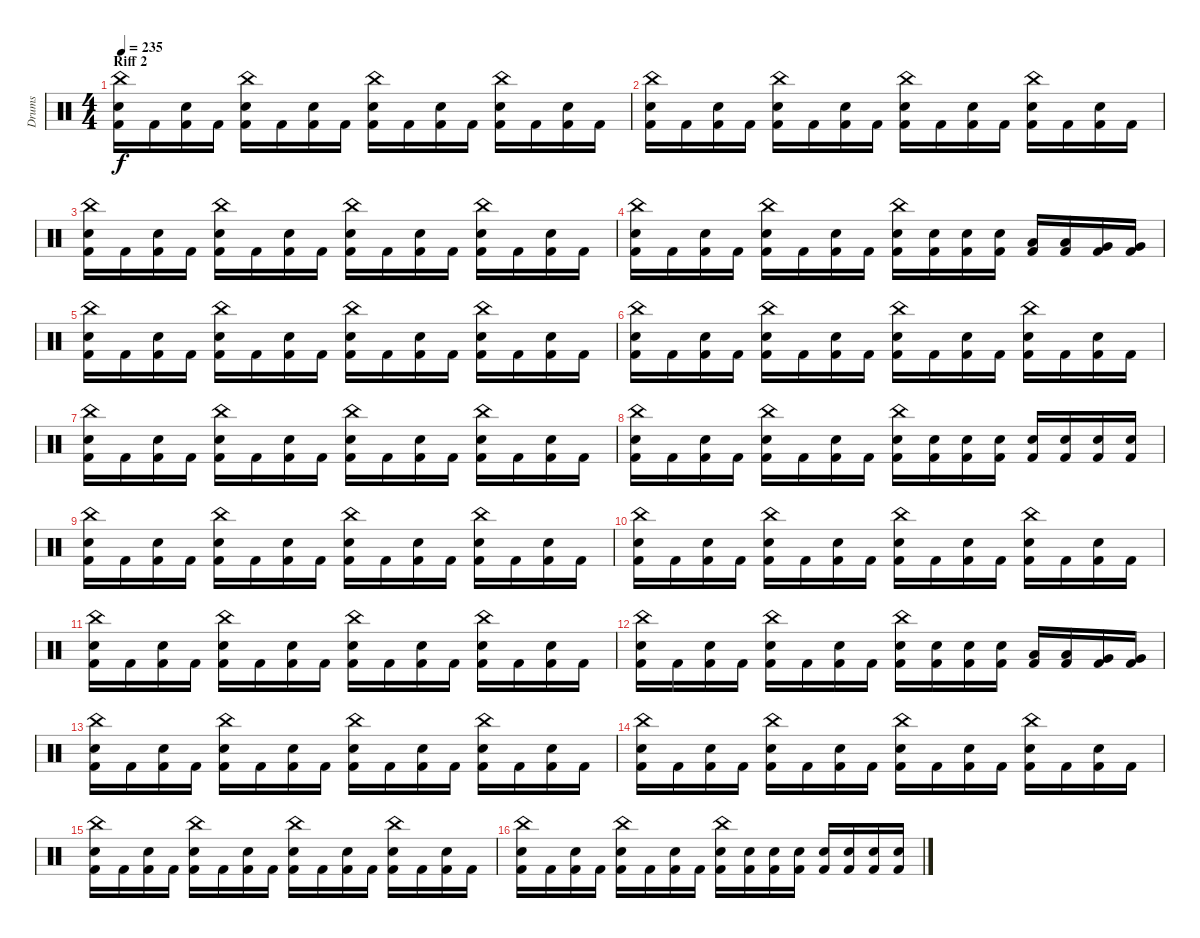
\track ("Drums" "Drums") {instrument percussion}
\staff {score}
\articulation defaults
\ts (4 4)
\section ("" "Riff 2")
\tempo 235
\clef neutral
\ks c
("Kick (hit) 2" "Snare (hit) 2" "China (hit)").16{dy f} "Kick (hit) 2".16 ("Kick (hit) 2" "Snare (hit) 2").16 "Kick (hit) 2".16 ("Kick (hit) 2" "Snare (hit) 2" "China (hit)").16 "Kick (hit) 2".16 ("Kick (hit) 2" "Snare (hit) 2").16 "Kick (hit) 2".16 ("Kick (hit) 2" "Snare (hit) 2" "China (hit)").16 "Kick (hit) 2".16 ("Kick (hit) 2" "Snare (hit) 2").16 "Kick (hit) 2".16 ("Kick (hit) 2" "Snare (hit) 2" "China (hit)").16 "Kick (hit) 2".16 ("Kick (hit) 2" "Snare (hit) 2").16 "Kick (hit) 2".16 |
("Kick (hit) 2" "Snare (hit) 2" "China (hit)").16 "Kick (hit) 2".16 ("Kick (hit) 2" "Snare (hit) 2").16 "Kick (hit) 2".16 ("Kick (hit) 2" "Snare (hit) 2" "China (hit)").16 "Kick (hit) 2".16 ("Kick (hit) 2" "Snare (hit) 2").16 "Kick (hit) 2".16 ("Kick (hit) 2" "Snare (hit) 2" "China (hit)").16 "Kick (hit) 2".16 ("Kick (hit) 2" "Snare (hit) 2").16 "Kick (hit) 2".16 ("Kick (hit) 2" "Snare (hit) 2" "China (hit)").16 "Kick (hit) 2".16 ("Kick (hit) 2" "Snare (hit) 2").16 "Kick (hit) 2".16 |
("Kick (hit) 2" "Snare (hit) 2" "China (hit)").16 "Kick (hit) 2".16 ("Kick (hit) 2" "Snare (hit) 2").16 "Kick (hit) 2".16 ("Kick (hit) 2" "Snare (hit) 2" "China (hit)").16 "Kick (hit) 2".16 ("Kick (hit) 2" "Snare (hit) 2").16 "Kick (hit) 2".16 ("Kick (hit) 2" "Snare (hit) 2" "China (hit)").16 "Kick (hit) 2".16 ("Kick (hit) 2" "Snare (hit) 2").16 "Kick (hit) 2".16 ("Kick (hit) 2" "Snare (hit) 2" "China (hit)").16 "Kick (hit) 2".16 ("Kick (hit) 2" "Snare (hit) 2").16 "Kick (hit) 2".16 |
("Kick (hit) 2" "Snare (hit) 2" "China (hit)").16 "Kick (hit) 2".16 ("Kick (hit) 2" "Snare (hit) 2").16 "Kick (hit) 2".16 ("Kick (hit) 2" "Snare (hit) 2" "China (hit)").16 "Kick (hit) 2".16 ("Kick (hit) 2" "Snare (hit) 2").16 "Kick (hit) 2".16 ("Kick (hit) 2" "Snare (hit) 2" "China (hit)").16 ("Kick (hit) 2" "Snare (hit) 2").16 ("Kick (hit) 2" "Snare (hit) 2").16 ("Kick (hit) 2" "Snare (hit) 2").16 ("Kick (hit) 2" "Low Tom (hit)").16 ("Kick (hit) 2" "Low Tom (hit)").16 ("Kick (hit) 2" "Very Low Tom (hit)").16 ("Kick (hit) 2" "Very Low Tom (hit)").16 |
("Kick (hit) 2" "Snare (hit) 2" "China (hit)").16 "Kick (hit) 2".16 ("Kick (hit) 2" "Snare (hit) 2").16 "Kick (hit) 2".16 ("Kick (hit) 2" "Snare (hit) 2" "China (hit)").16 "Kick (hit) 2".16 ("Kick (hit) 2" "Snare (hit) 2").16 "Kick (hit) 2".16 ("Kick (hit) 2" "Snare (hit) 2" "China (hit)").16 "Kick (hit) 2".16 ("Kick (hit) 2" "Snare (hit) 2").16 "Kick (hit) 2".16 ("Kick (hit) 2" "Snare (hit) 2" "China (hit)").16 "Kick (hit) 2".16 ("Kick (hit) 2" "Snare (hit) 2").16 "Kick (hit) 2".16 |
("Kick (hit) 2" "Snare (hit) 2" "China (hit)").16 "Kick (hit) 2".16 ("Kick (hit) 2" "Snare (hit) 2").16 "Kick (hit) 2".16 ("Kick (hit) 2" "Snare (hit) 2" "China (hit)").16 "Kick (hit) 2".16 ("Kick (hit) 2" "Snare (hit) 2").16 "Kick (hit) 2".16 ("Kick (hit) 2" "Snare (hit) 2" "China (hit)").16 "Kick (hit) 2".16 ("Kick (hit) 2" "Snare (hit) 2").16 "Kick (hit) 2".16 ("Kick (hit) 2" "Snare (hit) 2" "China (hit)").16 "Kick (hit) 2".16 ("Kick (hit) 2" "Snare (hit) 2").16 "Kick (hit) 2".16 |
("Kick (hit) 2" "Snare (hit) 2" "China (hit)").16 "Kick (hit) 2".16 ("Kick (hit) 2" "Snare (hit) 2").16 "Kick (hit) 2".16 ("Kick (hit) 2" "Snare (hit) 2" "China (hit)").16 "Kick (hit) 2".16 ("Kick (hit) 2" "Snare (hit) 2").16 "Kick (hit) 2".16 ("Kick (hit) 2" "Snare (hit) 2" "China (hit)").16 "Kick (hit) 2".16 ("Kick (hit) 2" "Snare (hit) 2").16 "Kick (hit) 2".16 ("Kick (hit) 2" "Snare (hit) 2" "China (hit)").16 "Kick (hit) 2".16 ("Kick (hit) 2" "Snare (hit) 2").16 "Kick (hit) 2".16 |
("Kick (hit) 2" "Snare (hit) 2" "China (hit)").16 "Kick (hit) 2".16 ("Kick (hit) 2" "Snare (hit) 2").16 "Kick (hit) 2".16 ("Kick (hit) 2" "Snare (hit) 2" "China (hit)").16 "Kick (hit) 2".16 ("Kick (hit) 2" "Snare (hit) 2").16 "Kick (hit) 2".16 ("Kick (hit) 2" "Snare (hit) 2" "China (hit)").16 ("Kick (hit) 2" "Snare (hit) 2").16 ("Kick (hit) 2" "Snare (hit) 2").16 ("Kick (hit) 2" "Snare (hit) 2").16 ("Kick (hit) 2" "Snare (hit) 2").16 ("Kick (hit) 2" "Snare (hit) 2").16 ("Kick (hit) 2" "Snare (hit) 2").16 ("Kick (hit) 2" "Snare (hit) 2").16 |
("Kick (hit) 2" "Snare (hit) 2" "China (hit)").16 "Kick (hit) 2".16 ("Kick (hit) 2" "Snare (hit) 2").16 "Kick (hit) 2".16 ("Kick (hit) 2" "Snare (hit) 2" "China (hit)").16 "Kick (hit) 2".16 ("Kick (hit) 2" "Snare (hit) 2").16 "Kick (hit) 2".16 ("Kick (hit) 2" "Snare (hit) 2" "China (hit)").16 "Kick (hit) 2".16 ("Kick (hit) 2" "Snare (hit) 2").16 "Kick (hit) 2".16 ("Kick (hit) 2" "Snare (hit) 2" "China (hit)").16 "Kick (hit) 2".16 ("Kick (hit) 2" "Snare (hit) 2").16 "Kick (hit) 2".16 |
("Kick (hit) 2" "Snare (hit) 2" "China (hit)").16 "Kick (hit) 2".16 ("Kick (hit) 2" "Snare (hit) 2").16 "Kick (hit) 2".16 ("Kick (hit) 2" "Snare (hit) 2" "China (hit)").16 "Kick (hit) 2".16 ("Kick (hit) 2" "Snare (hit) 2").16 "Kick (hit) 2".16 ("Kick (hit) 2" "Snare (hit) 2" "China (hit)").16 "Kick (hit) 2".16 ("Kick (hit) 2" "Snare (hit) 2").16 "Kick (hit) 2".16 ("Kick (hit) 2" "Snare (hit) 2" "China (hit)").16 "Kick (hit) 2".16 ("Kick (hit) 2" "Snare (hit) 2").16 "Kick (hit) 2".16 |
("Kick (hit) 2" "Snare (hit) 2" "China (hit)").16 "Kick (hit) 2".16 ("Kick (hit) 2" "Snare (hit) 2").16 "Kick (hit) 2".16 ("Kick (hit) 2" "Snare (hit) 2" "China (hit)").16 "Kick (hit) 2".16 ("Kick (hit) 2" "Snare (hit) 2").16 "Kick (hit) 2".16 ("Kick (hit) 2" "Snare (hit) 2" "China (hit)").16 "Kick (hit) 2".16 ("Kick (hit) 2" "Snare (hit) 2").16 "Kick (hit) 2".16 ("Kick (hit) 2" "Snare (hit) 2" "China (hit)").16 "Kick (hit) 2".16 ("Kick (hit) 2" "Snare (hit) 2").16 "Kick (hit) 2".16 |
("Kick (hit) 2" "Snare (hit) 2" "China (hit)").16 "Kick (hit) 2".16 ("Kick (hit) 2" "Snare (hit) 2").16 "Kick (hit) 2".16 ("Kick (hit) 2" "Snare (hit) 2" "China (hit)").16 "Kick (hit) 2".16 ("Kick (hit) 2" "Snare (hit) 2").16 "Kick (hit) 2".16 ("Kick (hit) 2" "Snare (hit) 2" "China (hit)").16 ("Kick (hit) 2" "Snare (hit) 2").16 ("Kick (hit) 2" "Snare (hit) 2").16 ("Kick (hit) 2" "Snare (hit) 2").16 ("Kick (hit) 2" "Low Tom (hit)").16 ("Kick (hit) 2" "Low Tom (hit)").16 ("Kick (hit) 2" "Very Low Tom (hit)").16 ("Kick (hit) 2" "Very Low Tom (hit)").16 |
("Kick (hit) 2" "Snare (hit) 2" "China (hit)").16 "Kick (hit) 2".16 ("Kick (hit) 2" "Snare (hit) 2").16 "Kick (hit) 2".16 ("Kick (hit) 2" "Snare (hit) 2" "China (hit)").16 "Kick (hit) 2".16 ("Kick (hit) 2" "Snare (hit) 2").16 "Kick (hit) 2".16 ("Kick (hit) 2" "Snare (hit) 2" "China (hit)").16 "Kick (hit) 2".16 ("Kick (hit) 2" "Snare (hit) 2").16 "Kick (hit) 2".16 ("Kick (hit) 2" "Snare (hit) 2" "China (hit)").16 "Kick (hit) 2".16 ("Kick (hit) 2" "Snare (hit) 2").16 "Kick (hit) 2".16 |
("Kick (hit) 2" "Snare (hit) 2" "China (hit)").16 "Kick (hit) 2".16 ("Kick (hit) 2" "Snare (hit) 2").16 "Kick (hit) 2".16 ("Kick (hit) 2" "Snare (hit) 2" "China (hit)").16 "Kick (hit) 2".16 ("Kick (hit) 2" "Snare (hit) 2").16 "Kick (hit) 2".16 ("Kick (hit) 2" "Snare (hit) 2" "China (hit)").16 "Kick (hit) 2".16 ("Kick (hit) 2" "Snare (hit) 2").16 "Kick (hit) 2".16 ("Kick (hit) 2" "Snare (hit) 2" "China (hit)").16 "Kick (hit) 2".16 ("Kick (hit) 2" "Snare (hit) 2").16 "Kick (hit) 2".16 |
("Kick (hit) 2" "Snare (hit) 2" "China (hit)").16 "Kick (hit) 2".16 ("Kick (hit) 2" "Snare (hit) 2").16 "Kick (hit) 2".16 ("Kick (hit) 2" "Snare (hit) 2" "China (hit)").16 "Kick (hit) 2".16 ("Kick (hit) 2" "Snare (hit) 2").16 "Kick (hit) 2".16 ("Kick (hit) 2" "Snare (hit) 2" "China (hit)").16 "Kick (hit) 2".16 ("Kick (hit) 2" "Snare (hit) 2").16 "Kick (hit) 2".16 ("Kick (hit) 2" "Snare (hit) 2" "China (hit)").16 "Kick (hit) 2".16 ("Kick (hit) 2" "Snare (hit) 2").16 "Kick (hit) 2".16 |
("Kick (hit) 2" "Snare (hit) 2" "China (hit)").16 "Kick (hit) 2".16 ("Kick (hit) 2" "Snare (hit) 2").16 "Kick (hit) 2".16 ("Kick (hit) 2" "Snare (hit) 2" "China (hit)").16 "Kick (hit) 2".16 ("Kick (hit) 2" "Snare (hit) 2").16 "Kick (hit) 2".16 ("Kick (hit) 2" "Snare (hit) 2" "China (hit)").16 ("Kick (hit) 2" "Snare (hit) 2").16 ("Kick (hit) 2" "Snare (hit) 2").16 ("Kick (hit) 2" "Snare (hit) 2").16 ("Kick (hit) 2" "Snare (hit) 2").16 ("Kick (hit) 2" "Snare (hit) 2").16 ("Kick (hit) 2" "Snare (hit) 2").16 ("Kick (hit) 2" "Snare (hit) 2").16
